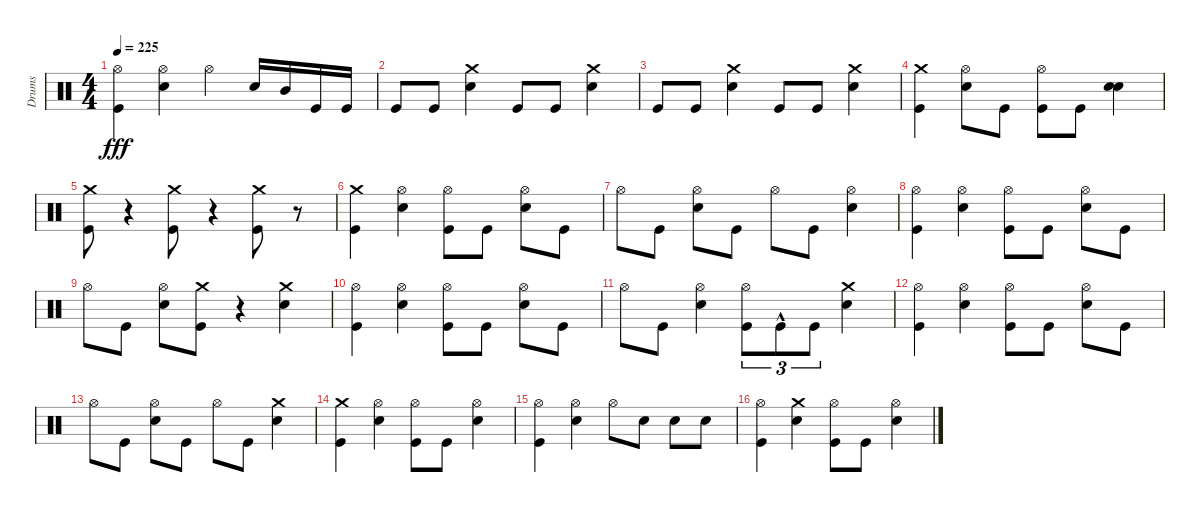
\track ("Drums" "Drums") {instrument percussion}
\staff {score}
\articulation defaults
\ts (4 4)
\tempo 225
\clef neutral
\ks c
("Kick (hit)" "Hi-Hat (open)").4{dy fff} ("Snare (hit) 2" "Hi-Hat (open)").4 "Hi-Hat (open)".4 "Snare (hit) 2".16 "Mid Tom (hit)".16 "Kick (hit)".16 "Kick (hit)".16 |
"Kick (hit)".8 "Kick (hit)".8 ("Snare (hit) 2" "Crash medium (hit)").4 "Kick (hit)".8 "Kick (hit)".8 ("Snare (hit) 2" "Crash medium (hit)").4 |
"Kick (hit)".8 "Kick (hit)".8 ("Crash medium (hit)" "Snare (hit) 2").4 "Kick (hit)".8 "Kick (hit)".8 ("Crash medium (hit)" "Snare (hit) 2").4 |
("Kick (hit)" "Crash medium (hit)").4 ("Snare (hit) 2" "Hi-Hat (open)").8 "Kick (hit)".8 ("Kick (hit)" "Hi-Hat (open)").8 "Kick (hit)".8 ("Snare (hit) 2" "Snare (hit) 2").4 |
("Crash medium (hit)" "Kick (hit)").8 r.4 ("Kick (hit)" "Crash medium (hit)").8 r.4 ("Crash medium (hit)" "Kick (hit)").8 r.8 |
("Kick (hit)" "Crash medium (hit)").4 ("Snare (hit) 2" "Hi-Hat (open)").4 ("Kick (hit)" "Hi-Hat (open)").8 "Kick (hit)".8 ("Snare (hit) 2" "Hi-Hat (open)").8 "Kick (hit)".8 |
"Hi-Hat (open)".8 "Kick (hit)".8 ("Snare (hit) 2" "Hi-Hat (open)").8 "Kick (hit)".8 "Hi-Hat (open)".8 "Kick (hit)".8 ("Snare (hit) 2" "Hi-Hat (open)").4 |
("Kick (hit)" "Hi-Hat (open)").4 ("Snare (hit) 2" "Hi-Hat (open)").4 ("Kick (hit)" "Hi-Hat (open)").8 "Kick (hit)".8 ("Snare (hit) 2" "Hi-Hat (open)").8 "Kick (hit)".8 |
"Hi-Hat (open)".8 "Kick (hit)".8 ("Snare (hit) 2" "Hi-Hat (open)").8 ("Crash medium (hit)" "Kick (hit)").8 r.4 ("Snare (hit) 2" "Crash medium (hit)").4 |
("Kick (hit)" "Hi-Hat (open)").4 ("Snare (hit) 2" "Hi-Hat (open)").4 ("Kick (hit)" "Hi-Hat (open)").8 "Kick (hit)".8 ("Snare (hit) 2" "Hi-Hat (open)").8 "Kick (hit)".8 |
"Hi-Hat (open)".8 "Kick (hit)".8 ("Snare (hit) 2" "Hi-Hat (open)").4 ("Kick (hit)" "Hi-Hat (open)").8{tu (3 2)} "Kick (hit)"{hac}.8{tu (3 2)} "Kick (hit)".8{tu (3 2)} ("Crash medium (hit)" "Snare (hit) 2").4 |
("Kick (hit)" "Hi-Hat (open)").4 ("Snare (hit) 2" "Hi-Hat (open)").4 ("Kick (hit)" "Hi-Hat (open)").8 "Kick (hit)".8 ("Snare (hit) 2" "Hi-Hat (open)").8 "Kick (hit)".8 |
"Hi-Hat (open)".8 "Kick (hit)".8 ("Snare (hit) 2" "Hi-Hat (open)").8 "Kick (hit)".8 "Hi-Hat (open)".8 "Kick (hit)".8 ("Snare (hit) 2" "Crash medium (hit)").4 |
("Kick (hit)" "Crash medium (hit)").4 ("Snare (hit) 2" "Hi-Hat (open)").4 ("Kick (hit)" "Hi-Hat (open)").8 "Kick (hit)".8 ("Snare (hit) 2" "Hi-Hat (open)").4 |
("Kick (hit)" "Hi-Hat (open)").4 ("Snare (hit) 2" "Hi-Hat (open)").4 "Hi-Hat (open)".8 "Snare (hit) 2".8 "Snare (hit) 2".8 "Snare (hit) 2".8 |
("Kick (hit)" "Hi-Hat (open)").4 ("Snare (hit) 2" "Crash medium (hit)").4 ("Kick (hit)" "Hi-Hat (open)").8 "Kick (hit)".8 ("Snare (hit) 2" "Hi-Hat (open)").4
